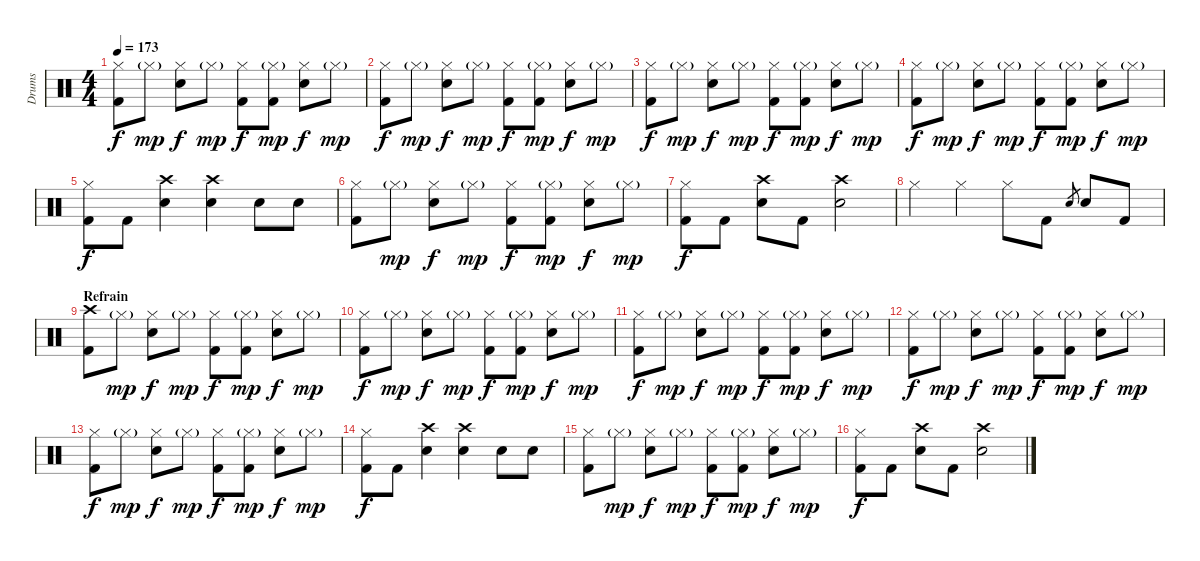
\track ("Drums" "Drums") {instrument percussion}
\staff {score}
\articulation defaults
\ts (4 4)
\tempo 173
\clef neutral
\ks c
("Hi-Hat (closed)" "Kick (hit) 2").8{dy f} "Hi-Hat (closed)"{g}.8{dy mp} ("Hi-Hat (closed)" "Electric Snare (hit)").8{dy f} "Hi-Hat (closed)"{g}.8{dy mp} ("Hi-Hat (closed)" "Kick (hit) 2").8{dy f} ("Hi-Hat (closed)"{g} "Kick (hit) 2").8{dy mp} ("Hi-Hat (closed)" "Electric Snare (hit)").8{dy f} "Hi-Hat (closed)"{g}.8{dy mp} |
("Hi-Hat (closed)" "Kick (hit) 2").8{dy f} "Hi-Hat (closed)"{g}.8{dy mp} ("Hi-Hat (closed)" "Electric Snare (hit)").8{dy f} "Hi-Hat (closed)"{g}.8{dy mp} ("Hi-Hat (closed)" "Kick (hit) 2").8{dy f} ("Hi-Hat (closed)"{g} "Kick (hit) 2").8{dy mp} ("Hi-Hat (closed)" "Electric Snare (hit)").8{dy f} "Hi-Hat (closed)"{g}.8{dy mp} |
("Hi-Hat (closed)" "Kick (hit) 2").8{dy f} "Hi-Hat (closed)"{g}.8{dy mp} ("Hi-Hat (closed)" "Electric Snare (hit)").8{dy f} "Hi-Hat (closed)"{g}.8{dy mp} ("Hi-Hat (closed)" "Kick (hit) 2").8{dy f} ("Hi-Hat (closed)"{g} "Kick (hit) 2").8{dy mp} ("Hi-Hat (closed)" "Electric Snare (hit)").8{dy f} "Hi-Hat (closed)"{g}.8{dy mp} |
("Hi-Hat (closed)" "Kick (hit) 2").8{dy f} "Hi-Hat (closed)"{g}.8{dy mp} ("Hi-Hat (closed)" "Electric Snare (hit)").8{dy f} "Hi-Hat (closed)"{g}.8{dy mp} ("Hi-Hat (closed)" "Kick (hit) 2").8{dy f} ("Hi-Hat (closed)"{g} "Kick (hit) 2").8{dy mp} ("Hi-Hat (closed)" "Electric Snare (hit)").8{dy f} "Hi-Hat (closed)"{g}.8{dy mp} |
("Hi-Hat (closed)" "Kick (hit) 2").8{dy f} "Kick (hit) 2".8 ("Crash high (hit)" "Electric Snare (hit)").4 ("Crash high (hit)" "Electric Snare (hit)").4 "Electric Snare (hit)".8 "Electric Snare (hit)".8 |
("Hi-Hat (closed)" "Kick (hit) 2").8 "Hi-Hat (closed)"{g}.8{dy mp} ("Hi-Hat (closed)" "Electric Snare (hit)").8{dy f} "Hi-Hat (closed)"{g}.8{dy mp} ("Hi-Hat (closed)" "Kick (hit) 2").8{dy f} ("Hi-Hat (closed)"{g} "Kick (hit) 2").8{dy mp} ("Hi-Hat (closed)" "Electric Snare (hit)").8{dy f} "Hi-Hat (closed)"{g}.8{dy mp} |
("Hi-Hat (closed)" "Kick (hit) 2").8{dy f} "Kick (hit) 2".8 ("Crash high (hit)" "Electric Snare (hit)").8 "Kick (hit) 2".8 ("Crash high (hit)" "Electric Snare (hit)").2 |
"Hi-Hat (closed)".4 "Hi-Hat (closed)".4 "Hi-Hat (closed)".8 "Kick (hit) 2".8 "Electric Snare (hit)".8{gr} "Electric Snare (hit)".8 "Kick (hit) 2".8 |
\section ("" "Refrain")
("Crash high (hit)" "Kick (hit) 2").8 "Hi-Hat (closed)"{g}.8{dy mp} ("Hi-Hat (closed)" "Electric Snare (hit)").8{dy f} "Hi-Hat (closed)"{g}.8{dy mp} ("Hi-Hat (closed)" "Kick (hit) 2").8{dy f} ("Hi-Hat (closed)"{g} "Kick (hit) 2").8{dy mp} ("Hi-Hat (closed)" "Electric Snare (hit)").8{dy f} "Hi-Hat (closed)"{g}.8{dy mp} |
("Hi-Hat (closed)" "Kick (hit) 2").8{dy f} "Hi-Hat (closed)"{g}.8{dy mp} ("Hi-Hat (closed)" "Electric Snare (hit)").8{dy f} "Hi-Hat (closed)"{g}.8{dy mp} ("Hi-Hat (closed)" "Kick (hit) 2").8{dy f} ("Hi-Hat (closed)"{g} "Kick (hit) 2").8{dy mp} ("Hi-Hat (closed)" "Electric Snare (hit)").8{dy f} "Hi-Hat (closed)"{g}.8{dy mp} |
("Hi-Hat (closed)" "Kick (hit) 2").8{dy f} "Hi-Hat (closed)"{g}.8{dy mp} ("Hi-Hat (closed)" "Electric Snare (hit)").8{dy f} "Hi-Hat (closed)"{g}.8{dy mp} ("Hi-Hat (closed)" "Kick (hit) 2").8{dy f} ("Hi-Hat (closed)"{g} "Kick (hit) 2").8{dy mp} ("Hi-Hat (closed)" "Electric Snare (hit)").8{dy f} "Hi-Hat (closed)"{g}.8{dy mp} |
("Hi-Hat (closed)" "Kick (hit) 2").8{dy f} "Hi-Hat (closed)"{g}.8{dy mp} ("Hi-Hat (closed)" "Electric Snare (hit)").8{dy f} "Hi-Hat (closed)"{g}.8{dy mp} ("Hi-Hat (closed)" "Kick (hit) 2").8{dy f} ("Hi-Hat (closed)"{g} "Kick (hit) 2").8{dy mp} ("Hi-Hat (closed)" "Electric Snare (hit)").8{dy f} "Hi-Hat (closed)"{g}.8{dy mp} |
("Hi-Hat (closed)" "Kick (hit) 2").8{dy f} "Hi-Hat (closed)"{g}.8{dy mp} ("Hi-Hat (closed)" "Electric Snare (hit)").8{dy f} "Hi-Hat (closed)"{g}.8{dy mp} ("Hi-Hat (closed)" "Kick (hit) 2").8{dy f} ("Hi-Hat (closed)"{g} "Kick (hit) 2").8{dy mp} ("Hi-Hat (closed)" "Electric Snare (hit)").8{dy f} "Hi-Hat (closed)"{g}.8{dy mp} |
("Hi-Hat (closed)" "Kick (hit) 2").8{dy f} "Kick (hit) 2".8 ("Crash high (hit)" "Electric Snare (hit)").4 ("Crash high (hit)" "Electric Snare (hit)").4 "Electric Snare (hit)".8 "Electric Snare (hit)".8 |
("Hi-Hat (closed)" "Kick (hit) 2").8 "Hi-Hat (closed)"{g}.8{dy mp} ("Hi-Hat (closed)" "Electric Snare (hit)").8{dy f} "Hi-Hat (closed)"{g}.8{dy mp} ("Hi-Hat (closed)" "Kick (hit) 2").8{dy f} ("Hi-Hat (closed)"{g} "Kick (hit) 2").8{dy mp} ("Hi-Hat (closed)" "Electric Snare (hit)").8{dy f} "Hi-Hat (closed)"{g}.8{dy mp} |
("Hi-Hat (closed)" "Kick (hit) 2").8{dy f} "Kick (hit) 2".8 ("Crash high (hit)" "Electric Snare (hit)").8 "Kick (hit) 2".8 ("Crash high (hit)" "Electric Snare (hit)").2
